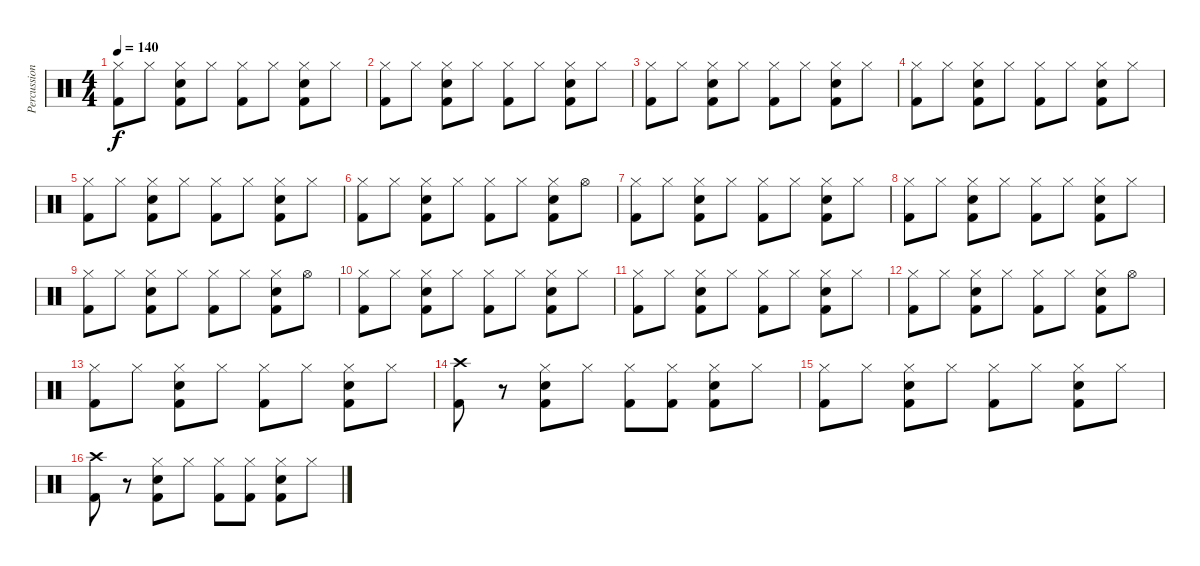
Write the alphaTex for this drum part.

\track ("Percussions" "Percussion") {instrument percussion}
\staff {score}
\articulation defaults
\ts (4 4)
\tempo 140
\clef neutral
\ks c
("Hi-Hat (closed)" "Kick (hit) 2").8{dy f} "Hi-Hat (closed)".8 ("Hi-Hat (closed)" "Snare (hit) 2" "Kick (hit) 2").8 "Hi-Hat (closed)".8 ("Hi-Hat (closed)" "Kick (hit) 2").8 "Hi-Hat (closed)".8 ("Hi-Hat (closed)" "Snare (hit) 2" "Kick (hit) 2").8 "Hi-Hat (closed)".8 |
("Hi-Hat (closed)" "Kick (hit) 2").8 "Hi-Hat (closed)".8 ("Hi-Hat (closed)" "Snare (hit) 2" "Kick (hit) 2").8 "Hi-Hat (closed)".8 ("Hi-Hat (closed)" "Kick (hit) 2").8 "Hi-Hat (closed)".8 ("Hi-Hat (closed)" "Snare (hit) 2" "Kick (hit) 2").8 "Hi-Hat (closed)".8 |
("Hi-Hat (closed)" "Kick (hit) 2").8 "Hi-Hat (closed)".8 ("Hi-Hat (closed)" "Snare (hit) 2" "Kick (hit) 2").8 "Hi-Hat (closed)".8 ("Hi-Hat (closed)" "Kick (hit) 2").8 "Hi-Hat (closed)".8 ("Hi-Hat (closed)" "Snare (hit) 2" "Kick (hit) 2").8 "Hi-Hat (closed)".8 |
("Hi-Hat (closed)" "Kick (hit) 2").8 "Hi-Hat (closed)".8 ("Hi-Hat (closed)" "Snare (hit) 2" "Kick (hit) 2").8 "Hi-Hat (closed)".8 ("Hi-Hat (closed)" "Kick (hit) 2").8 "Hi-Hat (closed)".8 ("Hi-Hat (closed)" "Snare (hit) 2" "Kick (hit) 2").8 "Hi-Hat (closed)".8 |
("Hi-Hat (closed)" "Kick (hit) 2").8 "Hi-Hat (closed)".8 ("Hi-Hat (closed)" "Snare (hit) 2" "Kick (hit) 2").8 "Hi-Hat (closed)".8 ("Hi-Hat (closed)" "Kick (hit) 2").8 "Hi-Hat (closed)".8 ("Hi-Hat (closed)" "Snare (hit) 2" "Kick (hit) 2").8 "Hi-Hat (closed)".8 |
("Hi-Hat (closed)" "Kick (hit) 2").8 "Hi-Hat (closed)".8 ("Hi-Hat (closed)" "Snare (hit) 2" "Kick (hit) 2").8 "Hi-Hat (closed)".8 ("Hi-Hat (closed)" "Kick (hit) 2").8 "Hi-Hat (closed)".8 ("Hi-Hat (closed)" "Snare (hit) 2" "Kick (hit) 2").8 "Hi-Hat (open)".8 |
("Hi-Hat (closed)" "Kick (hit) 2").8 "Hi-Hat (closed)".8 ("Hi-Hat (closed)" "Snare (hit) 2" "Kick (hit) 2").8 "Hi-Hat (closed)".8 ("Hi-Hat (closed)" "Kick (hit) 2").8 "Hi-Hat (closed)".8 ("Hi-Hat (closed)" "Snare (hit) 2" "Kick (hit) 2").8 "Hi-Hat (closed)".8 |
("Hi-Hat (closed)" "Kick (hit) 2").8 "Hi-Hat (closed)".8 ("Hi-Hat (closed)" "Snare (hit) 2" "Kick (hit) 2").8 "Hi-Hat (closed)".8 ("Hi-Hat (closed)" "Kick (hit) 2").8 "Hi-Hat (closed)".8 ("Hi-Hat (closed)" "Snare (hit) 2" "Kick (hit) 2").8 "Hi-Hat (closed)".8 |
("Hi-Hat (closed)" "Kick (hit) 2").8 "Hi-Hat (closed)".8 ("Hi-Hat (closed)" "Snare (hit) 2" "Kick (hit) 2").8 "Hi-Hat (closed)".8 ("Hi-Hat (closed)" "Kick (hit) 2").8 "Hi-Hat (closed)".8 ("Hi-Hat (closed)" "Snare (hit) 2" "Kick (hit) 2").8 "Hi-Hat (open)".8 |
("Hi-Hat (closed)" "Kick (hit) 2").8 "Hi-Hat (closed)".8 ("Hi-Hat (closed)" "Snare (hit) 2" "Kick (hit) 2").8 "Hi-Hat (closed)".8 ("Hi-Hat (closed)" "Kick (hit) 2").8 "Hi-Hat (closed)".8 ("Hi-Hat (closed)" "Snare (hit) 2" "Kick (hit) 2").8 "Hi-Hat (closed)".8 |
("Hi-Hat (closed)" "Kick (hit) 2").8 "Hi-Hat (closed)".8 ("Hi-Hat (closed)" "Snare (hit) 2" "Kick (hit) 2").8 "Hi-Hat (closed)".8 ("Hi-Hat (closed)" "Kick (hit) 2").8 "Hi-Hat (closed)".8 ("Hi-Hat (closed)" "Snare (hit) 2" "Kick (hit) 2").8 "Hi-Hat (closed)".8 |
("Hi-Hat (closed)" "Kick (hit) 2").8 "Hi-Hat (closed)".8 ("Hi-Hat (closed)" "Snare (hit) 2" "Kick (hit) 2").8 "Hi-Hat (closed)".8 ("Hi-Hat (closed)" "Kick (hit) 2").8 "Hi-Hat (closed)".8 ("Hi-Hat (closed)" "Snare (hit) 2" "Kick (hit) 2").8 "Hi-Hat (open)".8 |
("Hi-Hat (closed)" "Kick (hit) 2").8 "Hi-Hat (closed)".8 ("Hi-Hat (closed)" "Snare (hit) 2" "Kick (hit) 2").8 "Hi-Hat (closed)".8 ("Hi-Hat (closed)" "Kick (hit) 2").8 "Hi-Hat (closed)".8 ("Hi-Hat (closed)" "Snare (hit) 2" "Kick (hit) 2").8 "Hi-Hat (closed)".8 |
("Crash high (hit)" "Kick (hit) 2").8 r.8 ("Hi-Hat (closed)" "Snare (hit) 2" "Kick (hit) 2").8 "Hi-Hat (closed)".8 ("Hi-Hat (closed)" "Kick (hit) 2").8 ("Hi-Hat (closed)" "Kick (hit) 2").8 ("Hi-Hat (closed)" "Snare (hit) 2" "Kick (hit) 2").8 "Hi-Hat (closed)".8 |
("Hi-Hat (closed)" "Kick (hit) 2").8 "Hi-Hat (closed)".8 ("Hi-Hat (closed)" "Snare (hit) 2" "Kick (hit) 2").8 "Hi-Hat (closed)".8 ("Hi-Hat (closed)" "Kick (hit) 2").8 "Hi-Hat (closed)".8 ("Hi-Hat (closed)" "Snare (hit) 2" "Kick (hit) 2").8 "Hi-Hat (closed)".8 |
("Crash high (hit)" "Kick (hit) 2").8 r.8 ("Hi-Hat (closed)" "Snare (hit) 2" "Kick (hit) 2").8 "Hi-Hat (closed)".8 ("Hi-Hat (closed)" "Kick (hit) 2").8 ("Hi-Hat (closed)" "Kick (hit) 2").8 ("Hi-Hat (closed)" "Snare (hit) 2" "Kick (hit) 2").8 "Hi-Hat (closed)".8
